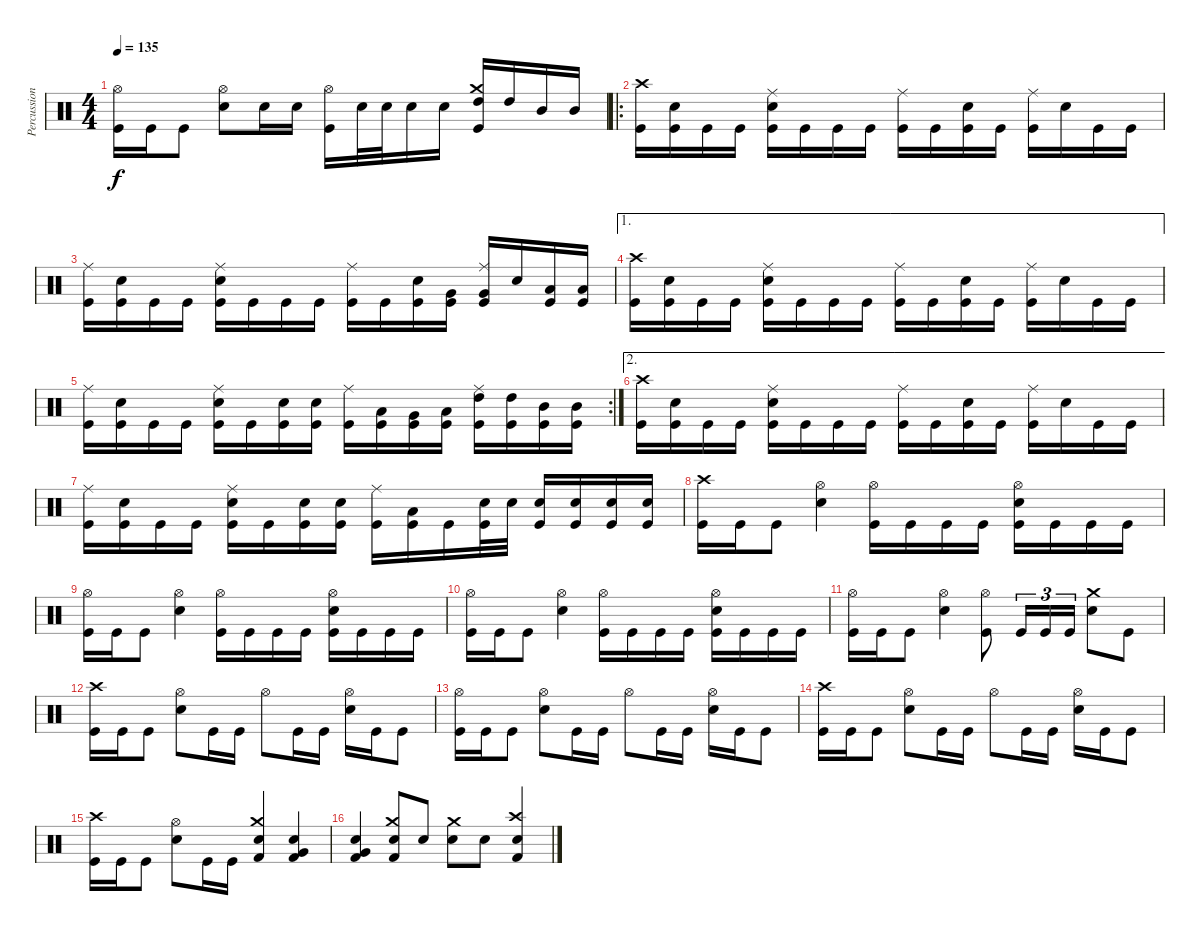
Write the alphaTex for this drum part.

\track ("Percussion" "Percussion") {instrument percussion}
\staff {score}
\articulation defaults
\ts (4 4)
\tempo 135
\clef neutral
\ks c
("Hi-Hat (open)" "Kick (hit)").16{dy f} "Kick (hit)".16 "Kick (hit)".8 ("Hi-Hat (open)" "Snare (hit) 2").8 "Snare (hit) 2".16 "Snare (hit) 2".16 ("Kick (hit)" "Hi-Hat (open)").16 "Snare (hit) 2".32 "Snare (hit) 2".32 "Snare (hit) 2".16 "Snare (hit) 2".16 ("Crash medium (hit)" "High Tom (hit)" "Kick (hit)").16 "High Tom (hit)".16 "Mid Tom (hit)".16 "Mid Tom (hit)".16 |
\ro
("Crash high (hit)" "Kick (hit)").16 ("Snare (hit) 2" "Kick (hit)").16 "Kick (hit)".16 "Kick (hit)".16 ("Ride (middle)" "Snare (hit) 2" "Kick (hit)").16 "Kick (hit)".16 "Kick (hit)".16 "Kick (hit)".16 ("Ride (middle)" "Kick (hit)").16 "Kick (hit)".16 ("Kick (hit)" "Snare (hit) 2").16 "Kick (hit)".16 ("Kick (hit)" "Ride (middle)").16 "Snare (hit) 2".16 "Kick (hit)".16 "Kick (hit)".16 |
("Ride (middle)" "Kick (hit)").16 ("Snare (hit) 2" "Kick (hit)").16 "Kick (hit)".16 "Kick (hit)".16 ("Ride (middle)" "Snare (hit) 2" "Kick (hit)").16 "Kick (hit)".16 "Kick (hit)".16 "Kick (hit)".16 ("Ride (middle)" "Kick (hit)").16 "Kick (hit)".16 ("Kick (hit)" "Snare (hit) 2").16 ("Kick (hit)" "Very Low Tom (hit)").16 ("Kick (hit)" "Ride (middle)" "Very Low Tom (hit)").16 "Snare (hit) 2".16 ("Low Floor Tom (hit)" "Kick (hit)").16 ("Kick (hit)" "Low Floor Tom (hit)").16 |
\ae 1
("Crash high (hit)" "Kick (hit)").16 ("Snare (hit) 2" "Kick (hit)").16 "Kick (hit)".16 "Kick (hit)".16 ("Ride (middle)" "Snare (hit) 2" "Kick (hit)").16 "Kick (hit)".16 "Kick (hit)".16 "Kick (hit)".16 ("Ride (middle)" "Kick (hit)").16 "Kick (hit)".16 ("Kick (hit)" "Snare (hit) 2").16 "Kick (hit)".16 ("Kick (hit)" "Ride (middle)").16 "Snare (hit) 2".16 "Kick (hit)".16 "Kick (hit)".16 |
\rc 2
("Ride (middle)" "Kick (hit)").16 ("Kick (hit)" "Snare (hit) 2").16 "Kick (hit)".16 "Kick (hit)".16 ("Ride (middle)" "Kick (hit)" "Snare (hit) 2").16 "Kick (hit)".16 ("Kick (hit)" "Snare (hit) 2").16 ("Kick (hit)" "Snare (hit) 2").16 ("Ride (middle)" "Kick (hit)").16 ("Kick (hit)" "Low Floor Tom (hit)").16 ("Kick (hit)" "Very Low Tom (hit)").16 ("Kick (hit)" "Low Floor Tom (hit)").16 ("Ride (middle)" "Kick (hit)" "High Tom (hit)").16 ("Kick (hit)" "High Tom (hit)").16 ("Kick (hit)" "Mid Tom (hit)").16 ("Kick (hit)" "Mid Tom (hit)").16 |
\ae 2
("Crash high (hit)" "Kick (hit)").16 ("Snare (hit) 2" "Kick (hit)").16 "Kick (hit)".16 "Kick (hit)".16 ("Ride (middle)" "Snare (hit) 2" "Kick (hit)").16 "Kick (hit)".16 "Kick (hit)".16 "Kick (hit)".16 ("Ride (middle)" "Kick (hit)").16 "Kick (hit)".16 ("Kick (hit)" "Snare (hit) 2").16 "Kick (hit)".16 ("Kick (hit)" "Ride (middle)").16 "Snare (hit) 2".16 "Kick (hit)".16 "Kick (hit)".16 |
("Ride (middle)" "Kick (hit)").16 ("Kick (hit)" "Snare (hit) 2").16 "Kick (hit)".16 "Kick (hit)".16 ("Ride (middle)" "Kick (hit)" "Snare (hit) 2").16 "Kick (hit)".16 ("Kick (hit)" "Snare (hit) 2").16 ("Kick (hit)" "Snare (hit) 2").16 ("Ride (middle)" "Kick (hit)").16 ("Kick (hit)" "Low Floor Tom (hit)").16 "Kick (hit)".16 ("Kick (hit)" "Snare (hit) 2").32 "Snare (hit) 2".32 ("Snare (hit) 2" "Kick (hit)").16 ("Kick (hit)" "Snare (hit) 2").16 ("Kick (hit)" "Snare (hit) 2").16 ("Kick (hit)" "Snare (hit) 2").16 |
("Crash high (hit)" "Kick (hit)").16 "Kick (hit)".16 "Kick (hit)".8 ("Hi-Hat (open)" "Snare (hit) 2").4 ("Kick (hit)" "Hi-Hat (open)").16 "Kick (hit)".16 "Kick (hit)".16 "Kick (hit)".16 ("Kick (hit)" "Hi-Hat (open)" "Snare (hit) 2").16 "Kick (hit)".16 "Kick (hit)".16 "Kick (hit)".16 |
("Hi-Hat (open)" "Kick (hit)").16 "Kick (hit)".16 "Kick (hit)".8 ("Hi-Hat (open)" "Snare (hit) 2").4 ("Kick (hit)" "Hi-Hat (open)").16 "Kick (hit)".16 "Kick (hit)".16 "Kick (hit)".16 ("Kick (hit)" "Hi-Hat (open)" "Snare (hit) 2").16 "Kick (hit)".16 "Kick (hit)".16 "Kick (hit)".16 |
("Hi-Hat (open)" "Kick (hit)").16 "Kick (hit)".16 "Kick (hit)".8 ("Hi-Hat (open)" "Snare (hit) 2").4 ("Kick (hit)" "Hi-Hat (open)").16 "Kick (hit)".16 "Kick (hit)".16 "Kick (hit)".16 ("Kick (hit)" "Hi-Hat (open)" "Snare (hit) 2").16 "Kick (hit)".16 "Kick (hit)".16 "Kick (hit)".16 |
("Hi-Hat (open)" "Kick (hit)").16 "Kick (hit)".16 "Kick (hit)".8 ("Hi-Hat (open)" "Snare (hit) 2").4 ("Kick (hit)" "Hi-Hat (open)").8 "Kick (hit)".16{tu (3 2)} "Kick (hit)".16{tu (3 2)} "Kick (hit)".16{tu (3 2)} ("Crash medium (hit)" "Snare (hit) 2").8 "Kick (hit)".8 |
("Crash high (hit)" "Kick (hit)").16 "Kick (hit)".16 "Kick (hit)".8 ("Hi-Hat (open)" "Snare (hit) 2").8 "Kick (hit)".16 "Kick (hit)".16 "Hi-Hat (open)".8 "Kick (hit)".16 "Kick (hit)".16 ("Hi-Hat (open)" "Snare (hit) 2").16 "Kick (hit)".16 "Kick (hit)".8 |
("Hi-Hat (open)" "Kick (hit)").16 "Kick (hit)".16 "Kick (hit)".8 ("Hi-Hat (open)" "Snare (hit) 2").8 "Kick (hit)".16 "Kick (hit)".16 "Hi-Hat (open)".8 "Kick (hit)".16 "Kick (hit)".16 ("Hi-Hat (open)" "Snare (hit) 2").16 "Kick (hit)".16 "Kick (hit)".8 |
("Crash high (hit)" "Kick (hit)").16 "Kick (hit)".16 "Kick (hit)".8 ("Hi-Hat (open)" "Snare (hit) 2").8 "Kick (hit)".16 "Kick (hit)".16 "Hi-Hat (open)".8 "Kick (hit)".16 "Kick (hit)".16 ("Hi-Hat (open)" "Snare (hit) 2").16 "Kick (hit)".16 "Kick (hit)".8 |
("Crash high (hit)" "Kick (hit)").16 "Kick (hit)".16 "Kick (hit)".8 ("Hi-Hat (open)" "Snare (hit) 2").8 "Kick (hit)".16 "Kick (hit)".16 ("Crash medium (hit)" "Snare (hit) 2" "Kick (hit) 2").4 ("Snare (hit) 2" "Very Low Tom (hit)" "Kick (hit) 2").4 |
("Snare (hit) 2" "Very Low Tom (hit)" "Kick (hit) 2").4 ("Crash medium (hit)" "Snare (hit) 2" "Kick (hit) 2").8 "Snare (hit) 2".8 ("Crash medium (hit)" "Snare (hit) 2").8 "Snare (hit) 2".8 ("Crash high (hit)" "Snare (hit) 2" "Kick (hit) 2").4
